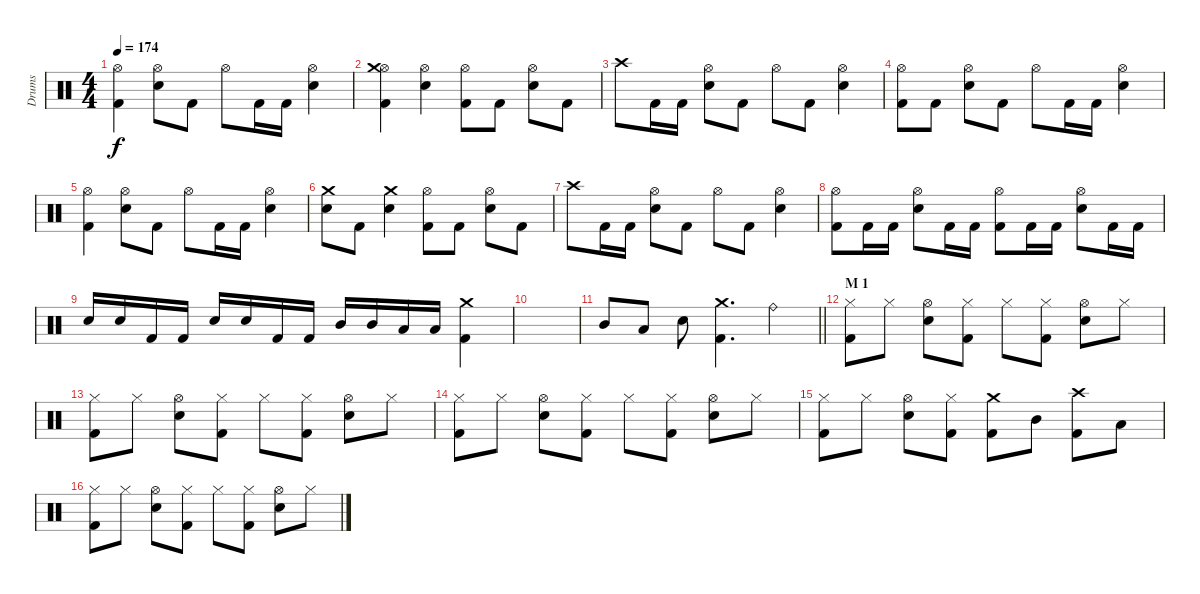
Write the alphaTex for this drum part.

\track ("Drums" "Drums") {instrument percussion}
\staff {score}
\articulation defaults
\ts (4 4)
\tempo 174
\clef neutral
\ks c
("Hi-Hat (open)" "Kick (hit) 2").4{dy f} ("Hi-Hat (open)" "Snare (hit) 2").8 "Kick (hit) 2".8 "Hi-Hat (open)".8 "Kick (hit) 2".16 "Kick (hit) 2".16 ("Hi-Hat (open)" "Snare (hit) 2").4 |
("Hi-Hat (open)" "Crash medium (hit)" "Kick (hit) 2").4 ("Hi-Hat (open)" "Snare (hit) 2").4 ("Hi-Hat (open)" "Kick (hit) 2").8 "Kick (hit) 2".8 ("Hi-Hat (open)" "Snare (hit) 2").8 "Kick (hit) 2".8 |
"Crash high (hit)".8 "Kick (hit) 2".16 "Kick (hit) 2".16 ("Hi-Hat (open)" "Snare (hit) 2").8 "Kick (hit) 2".8 "Hi-Hat (open)".8 "Kick (hit) 2".8 ("Hi-Hat (open)" "Snare (hit) 2").4 |
("Hi-Hat (open)" "Kick (hit) 2").8 "Kick (hit) 2".8 ("Hi-Hat (open)" "Snare (hit) 2").8 "Kick (hit) 2".8 "Hi-Hat (open)".8 "Kick (hit) 2".16 "Kick (hit) 2".16 ("Hi-Hat (open)" "Snare (hit) 2").4 |
("Hi-Hat (open)" "Kick (hit) 2").4 ("Hi-Hat (open)" "Snare (hit) 2").8 "Kick (hit) 2".8 "Hi-Hat (open)".8 "Kick (hit) 2".16 "Kick (hit) 2".16 ("Hi-Hat (open)" "Snare (hit) 2").4 |
("Crash medium (hit)" "Snare (hit) 2").8 "Kick (hit) 2".8 ("Crash medium (hit)" "Snare (hit) 2").4 ("Hi-Hat (open)" "Kick (hit) 2").8 "Kick (hit) 2".8 ("Hi-Hat (open)" "Snare (hit) 2").8 "Kick (hit) 2".8 |
"Crash high (hit)".8 "Kick (hit) 2".16 "Kick (hit) 2".16 ("Hi-Hat (open)" "Snare (hit) 2").8 "Kick (hit) 2".8 "Hi-Hat (open)".8 "Kick (hit) 2".8 ("Hi-Hat (open)" "Snare (hit) 2").4 |
("Hi-Hat (open)" "Kick (hit) 2").8 "Kick (hit) 2".16 "Kick (hit) 2".16 ("Hi-Hat (open)" "Snare (hit) 2").8 "Kick (hit) 2".16 "Kick (hit) 2".16 ("Hi-Hat (open)" "Kick (hit) 2").8 "Kick (hit) 2".16 "Kick (hit) 2".16 ("Hi-Hat (open)" "Snare (hit) 2").8 "Kick (hit) 2".16 "Kick (hit) 2".16 |
"Snare (hit) 2".16 "Snare (hit) 2".16 "Kick (hit) 2".16 "Kick (hit) 2".16 "Snare (hit) 2".16 "Snare (hit) 2".16 "Kick (hit) 2".16 "Kick (hit) 2".16 "Mid Tom (hit)".16 "Mid Tom (hit)".16 "Low Tom (hit)".16 "Low Tom (hit)".16 ("Crash medium (hit)" "Kick (hit) 2").4 |
|
\barLineRight lightlight "Mid Tom (hit)".8 "Low Tom (hit)".8 "Snare (hit) 2".8
("Crash medium (hit)" "Kick (hit) 2").4{d} "Ride (bell)".4 |
\section ("" "M 1")
("Hi-Hat (closed)" "Kick (hit) 2").8 "Hi-Hat (closed)".8 ("Hi-Hat (open)" "Snare (hit) 2").8 ("Hi-Hat (closed)" "Kick (hit) 2").8 "Hi-Hat (closed)".8 ("Hi-Hat (closed)" "Kick (hit) 2").8 ("Hi-Hat (open)" "Snare (hit) 2").8 "Hi-Hat (closed)".8 |
("Hi-Hat (closed)" "Kick (hit) 2").8 "Hi-Hat (closed)".8 ("Hi-Hat (open)" "Snare (hit) 2").8 ("Hi-Hat (closed)" "Kick (hit) 2").8 "Hi-Hat (closed)".8 ("Hi-Hat (closed)" "Kick (hit) 2").8 ("Hi-Hat (open)" "Snare (hit) 2").8 "Hi-Hat (closed)".8 |
("Hi-Hat (closed)" "Kick (hit) 2").8 "Hi-Hat (closed)".8 ("Hi-Hat (open)" "Snare (hit) 2").8 ("Hi-Hat (closed)" "Kick (hit) 2").8 "Hi-Hat (closed)".8 ("Hi-Hat (closed)" "Kick (hit) 2").8 ("Hi-Hat (open)" "Snare (hit) 2").8 "Hi-Hat (closed)".8 |
("Hi-Hat (closed)" "Kick (hit) 2").8 "Hi-Hat (closed)".8 ("Hi-Hat (open)" "Snare (hit) 2").8 ("Hi-Hat (closed)" "Kick (hit) 2").8 ("Crash medium (hit)" "Kick (hit) 2").8 "Mid Tom (hit)".8 ("Crash high (hit)" "Kick (hit) 2").8 "Low Tom (hit)".8 |
("Hi-Hat (closed)" "Kick (hit) 2").8 "Hi-Hat (closed)".8 ("Hi-Hat (open)" "Snare (hit) 2").8 ("Hi-Hat (closed)" "Kick (hit) 2").8 "Hi-Hat (closed)".8 ("Hi-Hat (closed)" "Kick (hit) 2").8 ("Hi-Hat (open)" "Snare (hit) 2").8 "Hi-Hat (closed)".8
